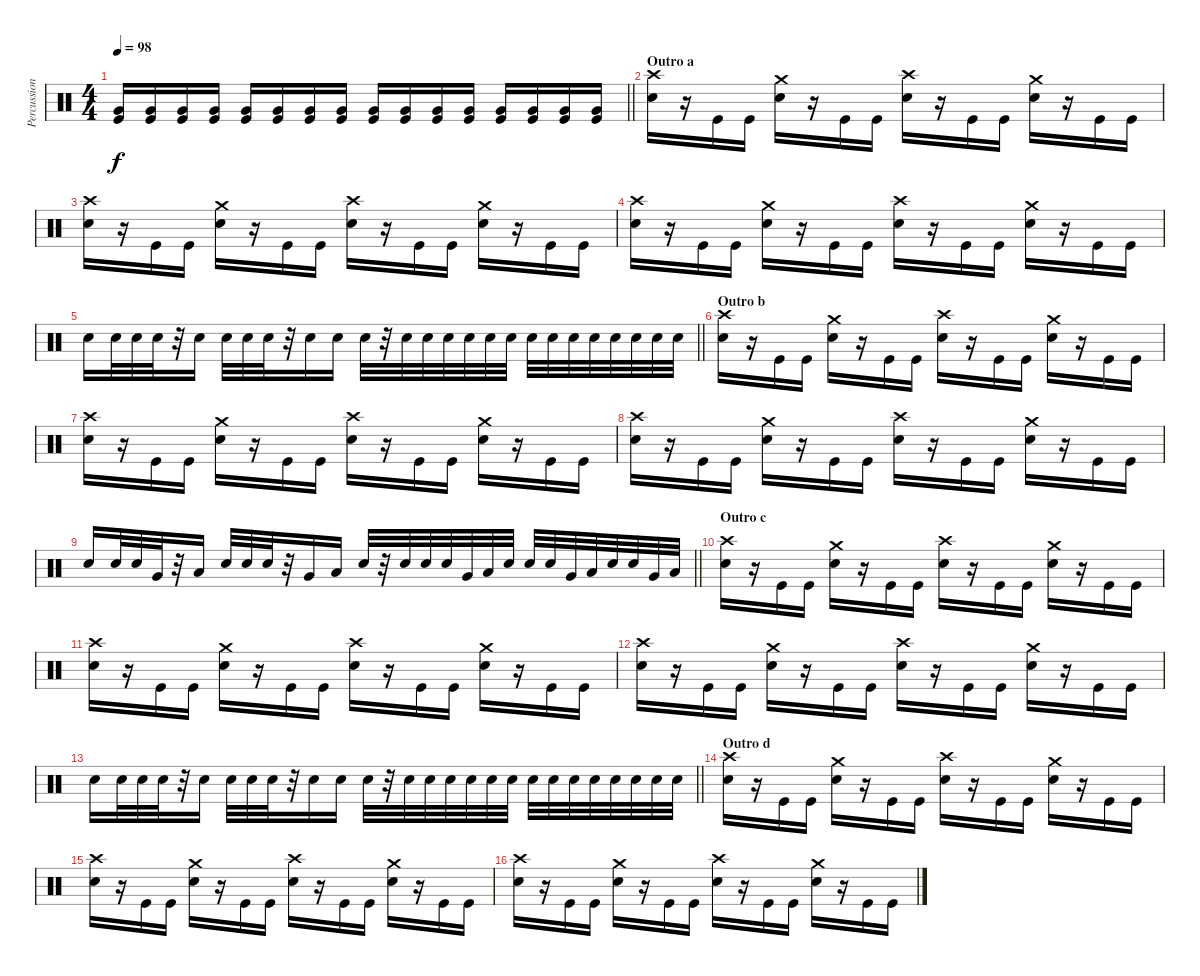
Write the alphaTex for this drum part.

\track ("Percussion" "Percussion") {instrument percussion}
\staff {score}
\articulation defaults
\ts (4 4)
\tempo 98
\clef neutral
\barLineRight lightlight
\ks c
("Very Low Tom (hit)" "Kick (hit)").16{dy f} ("Very Low Tom (hit)" "Kick (hit)").16 ("Very Low Tom (hit)" "Kick (hit)").16 ("Very Low Tom (hit)" "Kick (hit)").16 ("Very Low Tom (hit)" "Kick (hit)").16 ("Very Low Tom (hit)" "Kick (hit)").16 ("Very Low Tom (hit)" "Kick (hit)").16 ("Very Low Tom (hit)" "Kick (hit)").16 ("Very Low Tom (hit)" "Kick (hit)").16 ("Very Low Tom (hit)" "Kick (hit)").16 ("Very Low Tom (hit)" "Kick (hit)").16 ("Very Low Tom (hit)" "Kick (hit)").16 ("Very Low Tom (hit)" "Kick (hit)").16 ("Very Low Tom (hit)" "Kick (hit)").16 ("Very Low Tom (hit)" "Kick (hit)").16 ("Very Low Tom (hit)" "Kick (hit)").16 |
\section ("" "Outro a")
("Crash high (hit)" "Snare (hit) 2").16 r.16 "Kick (hit)".16 "Kick (hit)".16 ("Crash medium (hit)" "Snare (hit) 2").16 r.16 "Kick (hit)".16 "Kick (hit)".16 ("Crash high (hit)" "Snare (hit) 2").16 r.16 "Kick (hit)".16 "Kick (hit)".16 ("Crash medium (hit)" "Snare (hit) 2").16 r.16 "Kick (hit)".16 "Kick (hit)".16 |
("Crash high (hit)" "Snare (hit) 2").16 r.16 "Kick (hit)".16 "Kick (hit)".16 ("Crash medium (hit)" "Snare (hit) 2").16 r.16 "Kick (hit)".16 "Kick (hit)".16 ("Crash high (hit)" "Snare (hit) 2").16 r.16 "Kick (hit)".16 "Kick (hit)".16 ("Crash medium (hit)" "Snare (hit) 2").16 r.16 "Kick (hit)".16 "Kick (hit)".16 |
("Crash high (hit)" "Snare (hit) 2").16 r.16 "Kick (hit)".16 "Kick (hit)".16 ("Crash medium (hit)" "Snare (hit) 2").16 r.16 "Kick (hit)".16 "Kick (hit)".16 ("Crash high (hit)" "Snare (hit) 2").16 r.16 "Kick (hit)".16 "Kick (hit)".16 ("Crash medium (hit)" "Snare (hit) 2").16 r.16 "Kick (hit)".16 "Kick (hit)".16 |
\barLineRight lightlight "Snare (hit) 2".16 "Snare (hit) 2".32 "Snare (hit) 2".32 "Snare (hit) 2".32
r.32 "Snare (hit) 2".16 "Snare (hit) 2".32 "Snare (hit) 2".32 "Snare (hit) 2".32 r.32 "Snare (hit) 2".16 "Snare (hit) 2".16 "Snare (hit) 2".32 r.32 "Snare (hit) 2".32 "Snare (hit) 2".32 "Snare (hit) 2".32 "Snare (hit) 2".32 "Snare (hit) 2".32 "Snare (hit) 2".32 "Snare (hit) 2".32 "Snare (hit) 2".32 "Snare (hit) 2".32 "Snare (hit) 2".32 "Snare (hit) 2".32 "Snare (hit) 2".32 "Snare (hit) 2".32 "Snare (hit) 2".32 |
\section ("" "Outro b")
("Crash high (hit)" "Snare (hit) 2").16 r.16 "Kick (hit)".16 "Kick (hit)".16 ("Crash medium (hit)" "Snare (hit) 2").16 r.16 "Kick (hit)".16 "Kick (hit)".16 ("Crash high (hit)" "Snare (hit) 2").16 r.16 "Kick (hit)".16 "Kick (hit)".16 ("Crash medium (hit)" "Snare (hit) 2").16 r.16 "Kick (hit)".16 "Kick (hit)".16 |
("Crash high (hit)" "Snare (hit) 2").16 r.16 "Kick (hit)".16 "Kick (hit)".16 ("Crash medium (hit)" "Snare (hit) 2").16 r.16 "Kick (hit)".16 "Kick (hit)".16 ("Crash high (hit)" "Snare (hit) 2").16 r.16 "Kick (hit)".16 "Kick (hit)".16 ("Crash medium (hit)" "Snare (hit) 2").16 r.16 "Kick (hit)".16 "Kick (hit)".16 |
("Crash high (hit)" "Snare (hit) 2").16 r.16 "Kick (hit)".16 "Kick (hit)".16 ("Crash medium (hit)" "Snare (hit) 2").16 r.16 "Kick (hit)".16 "Kick (hit)".16 ("Crash high (hit)" "Snare (hit) 2").16 r.16 "Kick (hit)".16 "Kick (hit)".16 ("Crash medium (hit)" "Snare (hit) 2").16 r.16 "Kick (hit)".16 "Kick (hit)".16 |
\barLineRight lightlight "Snare (hit) 2".16 "Snare (hit) 2".32 "Snare (hit) 2".32 "Very Low Tom (hit)".32
r.32 "Low Floor Tom (hit)".16 "Snare (hit) 2".32 "Snare (hit) 2".32 "Snare (hit) 2".32 r.32 "Very Low Tom (hit)".16 "Low Floor Tom (hit)".16 "Snare (hit) 2".32 r.32 "Snare (hit) 2".32 "Snare (hit) 2".32 "Snare (hit) 2".32 "Very Low Tom (hit)".32 "Low Floor Tom (hit)".32 "Snare (hit) 2".32 "Snare (hit) 2".32 "Snare (hit) 2".32 "Very Low Tom (hit)".32 "Low Floor Tom (hit)".32 "Snare (hit) 2".32 "Snare (hit) 2".32 "Very Low Tom (hit)".32 "Low Floor Tom (hit)".32 |
\section ("" "Outro c")
("Crash high (hit)" "Snare (hit) 2").16 r.16 "Kick (hit)".16 "Kick (hit)".16 ("Crash medium (hit)" "Snare (hit) 2").16 r.16 "Kick (hit)".16 "Kick (hit)".16 ("Crash high (hit)" "Snare (hit) 2").16 r.16 "Kick (hit)".16 "Kick (hit)".16 ("Crash medium (hit)" "Snare (hit) 2").16 r.16 "Kick (hit)".16 "Kick (hit)".16 |
("Crash high (hit)" "Snare (hit) 2").16 r.16 "Kick (hit)".16 "Kick (hit)".16 ("Crash medium (hit)" "Snare (hit) 2").16 r.16 "Kick (hit)".16 "Kick (hit)".16 ("Crash high (hit)" "Snare (hit) 2").16 r.16 "Kick (hit)".16 "Kick (hit)".16 ("Crash medium (hit)" "Snare (hit) 2").16 r.16 "Kick (hit)".16 "Kick (hit)".16 |
("Crash high (hit)" "Snare (hit) 2").16 r.16 "Kick (hit)".16 "Kick (hit)".16 ("Crash medium (hit)" "Snare (hit) 2").16 r.16 "Kick (hit)".16 "Kick (hit)".16 ("Crash high (hit)" "Snare (hit) 2").16 r.16 "Kick (hit)".16 "Kick (hit)".16 ("Crash medium (hit)" "Snare (hit) 2").16 r.16 "Kick (hit)".16 "Kick (hit)".16 |
\barLineRight lightlight "Snare (hit) 2".16 "Snare (hit) 2".32 "Snare (hit) 2".32 "Snare (hit) 2".32
r.32 "Snare (hit) 2".16 "Snare (hit) 2".32 "Snare (hit) 2".32 "Snare (hit) 2".32 r.32 "Snare (hit) 2".16 "Snare (hit) 2".16 "Snare (hit) 2".32 r.32 "Snare (hit) 2".32 "Snare (hit) 2".32 "Snare (hit) 2".32 "Snare (hit) 2".32 "Snare (hit) 2".32 "Snare (hit) 2".32 "Snare (hit) 2".32 "Snare (hit) 2".32 "Snare (hit) 2".32 "Snare (hit) 2".32 "Snare (hit) 2".32 "Snare (hit) 2".32 "Snare (hit) 2".32 "Snare (hit) 2".32 |
\section ("" "Outro d")
("Crash high (hit)" "Snare (hit) 2").16 r.16 "Kick (hit)".16 "Kick (hit)".16 ("Crash medium (hit)" "Snare (hit) 2").16 r.16 "Kick (hit)".16 "Kick (hit)".16 ("Crash high (hit)" "Snare (hit) 2").16 r.16 "Kick (hit)".16 "Kick (hit)".16 ("Crash medium (hit)" "Snare (hit) 2").16 r.16 "Kick (hit)".16 "Kick (hit)".16 |
("Crash high (hit)" "Snare (hit) 2").16 r.16 "Kick (hit)".16 "Kick (hit)".16 ("Crash medium (hit)" "Snare (hit) 2").16 r.16 "Kick (hit)".16 "Kick (hit)".16 ("Crash high (hit)" "Snare (hit) 2").16 r.16 "Kick (hit)".16 "Kick (hit)".16 ("Crash medium (hit)" "Snare (hit) 2").16 r.16 "Kick (hit)".16 "Kick (hit)".16 |
("Crash high (hit)" "Snare (hit) 2").16 r.16 "Kick (hit)".16 "Kick (hit)".16 ("Crash medium (hit)" "Snare (hit) 2").16 r.16 "Kick (hit)".16 "Kick (hit)".16 ("Crash high (hit)" "Snare (hit) 2").16 r.16 "Kick (hit)".16 "Kick (hit)".16 ("Crash medium (hit)" "Snare (hit) 2").16 r.16 "Kick (hit)".16 "Kick (hit)".16
